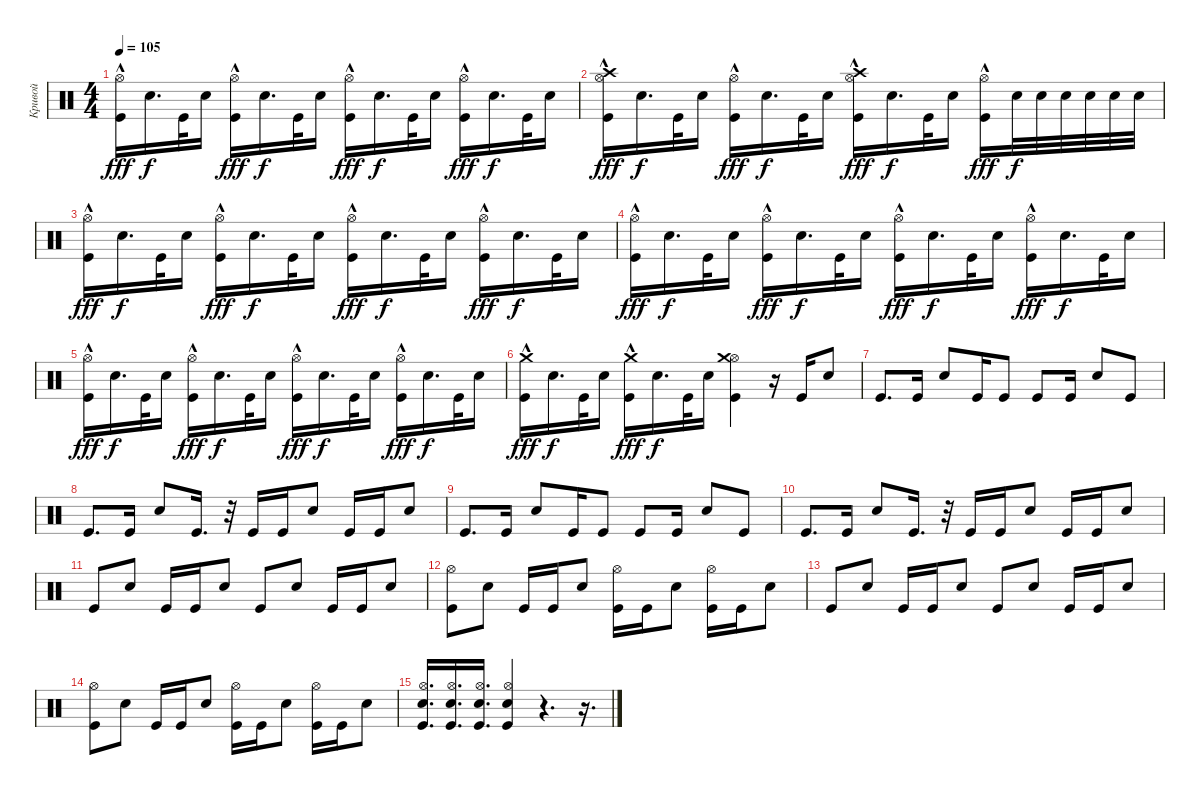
\track ("Кривой" "Кривой") {instrument percussion}
\staff {score}
\articulation defaults
\ts (4 4)
\tempo 105
\clef neutral
\ks c
("Kick (hit)"{hac} "Hi-Hat (open)").16{dy fff} "Snare (hit) 2".16{d dy f} "Kick (hit)".32 "Snare (hit) 2".16 ("Kick (hit)"{hac} "Hi-Hat (open)").16{dy fff} "Snare (hit) 2".16{d dy f} "Kick (hit)".32 "Snare (hit) 2".16 ("Kick (hit)"{hac} "Hi-Hat (open)").16{dy fff} "Snare (hit) 2".16{d dy f} "Kick (hit)".32 "Snare (hit) 2".16 ("Kick (hit)"{hac} "Hi-Hat (open)").16{dy fff} "Snare (hit) 2".16{d dy f} "Kick (hit)".32 "Snare (hit) 2".16 |
("Kick (hit)"{hac} "Hi-Hat (open)" "Crash high (hit)").16{dy fff} "Snare (hit) 2".16{d dy f} "Kick (hit)".32 "Snare (hit) 2".16 ("Kick (hit)"{hac} "Hi-Hat (open)").16{dy fff} "Snare (hit) 2".16{d dy f} "Kick (hit)".32 "Snare (hit) 2".16 ("Kick (hit)"{hac} "Hi-Hat (open)" "Crash high (hit)").16{dy fff} "Snare (hit) 2".16{d dy f} "Kick (hit)".32 "Snare (hit) 2".16 ("Kick (hit)"{hac} "Hi-Hat (open)").16{dy fff} "Snare (hit) 2".32{dy f} "Snare (hit) 2".32 "Snare (hit) 2".32 "Snare (hit) 2".32 "Snare (hit) 2".32 "Snare (hit) 2".32 |
("Kick (hit)"{hac} "Hi-Hat (open)").16{dy fff} "Snare (hit) 2".16{d dy f} "Kick (hit)".32 "Snare (hit) 2".16 ("Kick (hit)"{hac} "Hi-Hat (open)").16{dy fff} "Snare (hit) 2".16{d dy f} "Kick (hit)".32 "Snare (hit) 2".16 ("Kick (hit)"{hac} "Hi-Hat (open)").16{dy fff} "Snare (hit) 2".16{d dy f} "Kick (hit)".32 "Snare (hit) 2".16 ("Kick (hit)"{hac} "Hi-Hat (open)").16{dy fff} "Snare (hit) 2".16{d dy f} "Kick (hit)".32 "Snare (hit) 2".16 |
("Kick (hit)"{hac} "Hi-Hat (open)").16{dy fff} "Snare (hit) 2".16{d dy f} "Kick (hit)".32 "Snare (hit) 2".16 ("Kick (hit)"{hac} "Hi-Hat (open)").16{dy fff} "Snare (hit) 2".16{d dy f} "Kick (hit)".32 "Snare (hit) 2".16 ("Kick (hit)"{hac} "Hi-Hat (open)").16{dy fff} "Snare (hit) 2".16{d dy f} "Kick (hit)".32 "Snare (hit) 2".16 ("Kick (hit)"{hac} "Hi-Hat (open)").16{dy fff} "Snare (hit) 2".16{d dy f} "Kick (hit)".32 "Snare (hit) 2".16 |
("Kick (hit)"{hac} "Hi-Hat (open)").16{dy fff} "Snare (hit) 2".16{d dy f} "Kick (hit)".32 "Snare (hit) 2".16 ("Kick (hit)"{hac} "Hi-Hat (open)").16{dy fff} "Snare (hit) 2".16{d dy f} "Kick (hit)".32 "Snare (hit) 2".16 ("Kick (hit)"{hac} "Hi-Hat (open)").16{dy fff} "Snare (hit) 2".16{d dy f} "Kick (hit)".32 "Snare (hit) 2".16 ("Kick (hit)"{hac} "Hi-Hat (open)").16{dy fff} "Snare (hit) 2".16{d dy f} "Kick (hit)".32 "Snare (hit) 2".16 |
("Kick (hit)"{hac} "Crash medium (hit)").16{dy fff} "Snare (hit) 2".16{d dy f} "Kick (hit)".32 "Snare (hit) 2".16 ("Kick (hit)"{hac} "Crash medium (hit)").16{dy fff} "Snare (hit) 2".16{d dy f} "Kick (hit)".32 "Snare (hit) 2".16 ("Kick (hit)" "Hi-Hat (open)" "Crash medium (hit)").4 r.16 "Kick (hit)".16 "Snare (hit) 2".8 |
"Kick (hit)".8{d} "Kick (hit)".16 "Snare (hit) 2".8 "Kick (hit)".16 "Kick (hit)".8 "Kick (hit)".8 "Kick (hit)".16 "Snare (hit) 2".8 "Kick (hit)".8 |
"Kick (hit)".8{d} "Kick (hit)".16 "Snare (hit) 2".8 "Kick (hit)".16{d} r.32 "Kick (hit)".16 "Kick (hit)".16 "Snare (hit) 2".8 "Kick (hit)".16 "Kick (hit)".16 "Snare (hit) 2".8 |
"Kick (hit)".8{d} "Kick (hit)".16 "Snare (hit) 2".8 "Kick (hit)".16 "Kick (hit)".8 "Kick (hit)".8 "Kick (hit)".16 "Snare (hit) 2".8 "Kick (hit)".8 |
"Kick (hit)".8{d} "Kick (hit)".16 "Snare (hit) 2".8 "Kick (hit)".16{d} r.32 "Kick (hit)".16 "Kick (hit)".16 "Snare (hit) 2".8 "Kick (hit)".16 "Kick (hit)".16 "Snare (hit) 2".8 |
"Kick (hit)".8 "Snare (hit) 2".8 "Kick (hit)".16 "Kick (hit)".16 "Snare (hit) 2".8 "Kick (hit)".8 "Snare (hit) 2".8 "Kick (hit)".16 "Kick (hit)".16 "Snare (hit) 2".8 |
("Kick (hit)" "Hi-Hat (open)").8 "Snare (hit) 2".8 "Kick (hit)".16 "Kick (hit)".16 "Snare (hit) 2".8 ("Kick (hit)" "Hi-Hat (open)").16 "Kick (hit)".16 "Snare (hit) 2".8 ("Kick (hit)" "Hi-Hat (open)").16 "Kick (hit)".16 "Snare (hit) 2".8 |
"Kick (hit)".8 "Snare (hit) 2".8 "Kick (hit)".16 "Kick (hit)".16 "Snare (hit) 2".8 "Kick (hit)".8 "Snare (hit) 2".8 "Kick (hit)".16 "Kick (hit)".16 "Snare (hit) 2".8 |
("Kick (hit)" "Hi-Hat (open)").8 "Snare (hit) 2".8 "Kick (hit)".16 "Kick (hit)".16 "Snare (hit) 2".8 ("Kick (hit)" "Hi-Hat (open)").16 "Kick (hit)".16 "Snare (hit) 2".8 ("Kick (hit)" "Hi-Hat (open)").16 "Kick (hit)".16 "Snare (hit) 2".8 |
("Snare (hit) 2" "Hi-Hat (open)" "Kick (hit)").16{d} ("Snare (hit) 2" "Hi-Hat (open)" "Kick (hit)").16{d} ("Snare (hit) 2" "Hi-Hat (open)" "Kick (hit)").16{d} ("Snare (hit) 2" "Hi-Hat (open)" "Kick (hit)").4 r.4{d} r.16{d}
